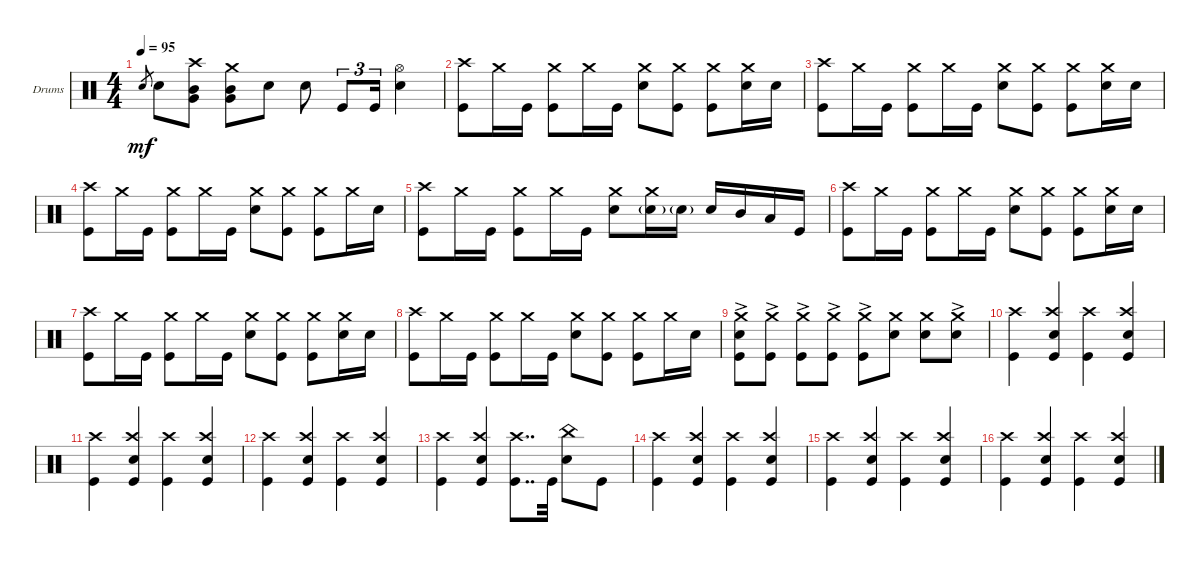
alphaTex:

\defaultSystemsLayout 4
\bracketExtendMode groupsimilarinstruments
\firstSystemTrackNameOrientation horizontal
\otherSystemsTrackNameOrientation horizontal
\track ("Drumkit" "Drums") {instrument percussion}
\staff {score}
\articulation defaults
\ts (4 4)
\tempo 95
\clef neutral
\ks c "Snare (hit) 2".8{gr dy mf} "Snare (hit) 2".8
("Mid Tom (hit)" "Very Low Tom (hit)" "Crash high (hit)").8 ("Very Low Tom (hit)" "Mid Tom (hit)" "Crash medium (hit)").8 "Snare (hit) 2".8 "Snare (hit) 2".8 "Kick (hit)".8{tu (3 2)} "Kick (hit)".16{tu (3 2)} ("Snare (hit) 2" "Hi-Hat (open)").4 |
("Crash high (hit)" "Kick (hit)").8 "Crash medium (hit)".16 "Kick (hit)".16 ("Kick (hit)" "Crash medium (hit)").8 "Crash medium (hit)".16 "Kick (hit)".16 ("Crash medium (hit)" "Snare (hit) 2").8 ("Crash medium (hit)" "Kick (hit)").8 ("Crash medium (hit)" "Kick (hit)").8 ("Crash medium (hit)" "Snare (hit) 2").16 "Snare (hit) 2".16 |
("Crash high (hit)" "Kick (hit)").8 "Crash medium (hit)".16 "Kick (hit)".16 ("Kick (hit)" "Crash medium (hit)").8 "Crash medium (hit)".16 "Kick (hit)".16 ("Crash medium (hit)" "Snare (hit) 2").8 ("Crash medium (hit)" "Kick (hit)").8 ("Crash medium (hit)" "Kick (hit)").8 ("Crash medium (hit)" "Snare (hit) 2").16 "Snare (hit) 2".16 |
("Crash high (hit)" "Kick (hit)").8 "Crash medium (hit)".16 "Kick (hit)".16 ("Kick (hit)" "Crash medium (hit)").8 "Crash medium (hit)".16 "Kick (hit)".16 ("Crash medium (hit)" "Snare (hit) 2").8 ("Crash medium (hit)" "Kick (hit)").8 ("Crash medium (hit)" "Kick (hit)").8 "Crash medium (hit)".16 "Snare (hit) 2".16 |
("Crash high (hit)" "Kick (hit)").8 "Crash medium (hit)".16 "Kick (hit)".16 ("Kick (hit)" "Crash medium (hit)").8 "Crash medium (hit)".16 "Kick (hit)".16 ("Crash medium (hit)" "Snare (hit) 2").8 ("Crash medium (hit)" "Snare (hit) 2"{g}).16 "Snare (hit) 2"{g}.16 "Snare (hit) 2".16 "Mid Tom (hit)".16 "Low Tom (hit)".16 "Kick (hit)".16 |
("Crash high (hit)" "Kick (hit)").8 "Crash medium (hit)".16 "Kick (hit)".16 ("Kick (hit)" "Crash medium (hit)").8 "Crash medium (hit)".16 "Kick (hit)".16 ("Crash medium (hit)" "Snare (hit) 2").8 ("Crash medium (hit)" "Kick (hit)").8 ("Crash medium (hit)" "Kick (hit)").8 ("Crash medium (hit)" "Snare (hit) 2").16 "Snare (hit) 2".16 |
("Crash high (hit)" "Kick (hit)").8 "Crash medium (hit)".16 "Kick (hit)".16 ("Kick (hit)" "Crash medium (hit)").8 "Crash medium (hit)".16 "Kick (hit)".16 ("Crash medium (hit)" "Snare (hit) 2").8 ("Crash medium (hit)" "Kick (hit)").8 ("Crash medium (hit)" "Kick (hit)").8 ("Crash medium (hit)" "Snare (hit) 2").16 "Snare (hit) 2".16 |
("Crash high (hit)" "Kick (hit)").8 "Crash medium (hit)".16 "Kick (hit)".16 ("Kick (hit)" "Crash medium (hit)").8 "Crash medium (hit)".16 "Kick (hit)".16 ("Crash medium (hit)" "Snare (hit) 2").8 ("Crash medium (hit)" "Kick (hit)").8 ("Crash medium (hit)" "Kick (hit)").8 "Crash medium (hit)".16 "Snare (hit) 2".16 |
("Crash medium (hit)" "Kick (hit)"{ac} "Snare (hit) 2").8 ("Kick (hit)"{ac} "Crash medium (hit)").8 ("Crash medium (hit)" "Kick (hit)"{ac}).8 ("Kick (hit)"{ac} "Crash medium (hit)").8 ("Crash medium (hit)" "Kick (hit)"{ac}).8 ("Crash medium (hit)" "Snare (hit) 2").8 ("Crash medium (hit)" "Snare (hit) 2").8 ("Crash medium (hit)" "Snare (hit) 2"{ac}).8 |
("Crash high (hit)" "Kick (hit)").4 ("Crash high (hit)" "Snare (hit) 2" "Kick (hit)").4 ("Crash high (hit)" "Kick (hit)").4 ("Crash high (hit)" "Snare (hit) 2" "Kick (hit)").4 |
("Crash high (hit)" "Kick (hit)").4 ("Crash high (hit)" "Snare (hit) 2" "Kick (hit)").4 ("Crash high (hit)" "Kick (hit)").4 ("Crash high (hit)" "Snare (hit) 2" "Kick (hit)").4 |
("Crash high (hit)" "Kick (hit)").4 ("Crash high (hit)" "Snare (hit) 2" "Kick (hit)").4 ("Crash high (hit)" "Kick (hit)").4 ("Crash high (hit)" "Snare (hit) 2" "Kick (hit)").4 |
("Crash high (hit)" "Kick (hit)").4 ("Crash high (hit)" "Snare (hit) 2" "Kick (hit)").4 ("Crash high (hit)" "Kick (hit)").8{dd} "Kick (hit)".32 ("Snare (hit) 2" "China (hit)").8 "Kick (hit)".8 |
("Crash high (hit)" "Kick (hit)").4 ("Crash high (hit)" "Snare (hit) 2" "Kick (hit)").4 ("Crash high (hit)" "Kick (hit)").4 ("Crash high (hit)" "Snare (hit) 2" "Kick (hit)").4 |
("Crash high (hit)" "Kick (hit)").4 ("Crash high (hit)" "Snare (hit) 2" "Kick (hit)").4 ("Crash high (hit)" "Kick (hit)").4 ("Crash high (hit)" "Snare (hit) 2" "Kick (hit)").4 |
("Crash high (hit)" "Kick (hit)").4 ("Crash high (hit)" "Snare (hit) 2" "Kick (hit)").4 ("Crash high (hit)" "Kick (hit)").4 ("Crash high (hit)" "Snare (hit) 2" "Kick (hit)").4
